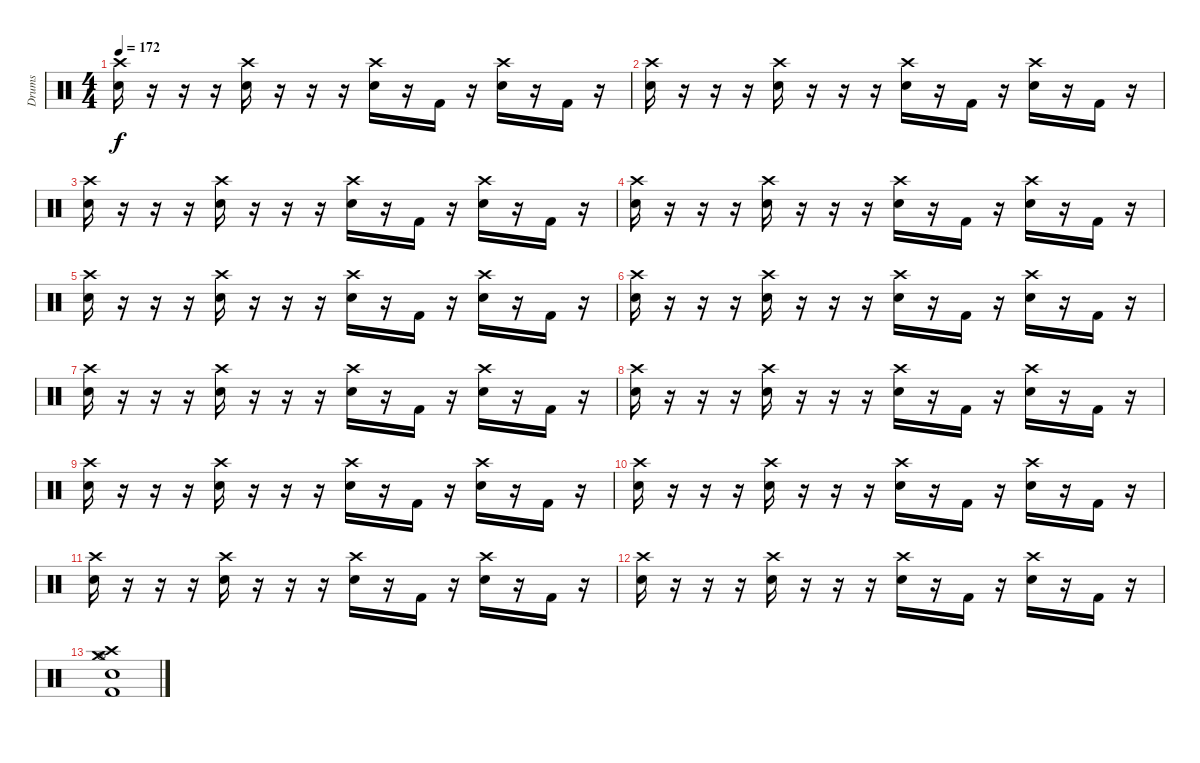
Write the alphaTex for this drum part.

\track ("Drums" "Drums") {instrument percussion}
\staff {score}
\articulation defaults
\ts (4 4)
\tempo 172
\clef neutral
\ks c
("Crash high (hit)" "Electric Snare (hit)").16{dy f} r.16 r.16 r.16 ("Crash high (hit)" "Electric Snare (hit)").16 r.16 r.16 r.16 ("Crash high (hit)" "Electric Snare (hit)").16 r.16 "Kick (hit) 2".16 r.16 ("Crash high (hit)" "Electric Snare (hit)").16 r.16 "Kick (hit) 2".16 r.16 |
("Crash high (hit)" "Electric Snare (hit)").16 r.16 r.16 r.16 ("Crash high (hit)" "Electric Snare (hit)").16 r.16 r.16 r.16 ("Crash high (hit)" "Electric Snare (hit)").16 r.16 "Kick (hit) 2".16 r.16 ("Crash high (hit)" "Electric Snare (hit)").16 r.16 "Kick (hit) 2".16 r.16 |
("Crash high (hit)" "Electric Snare (hit)").16 r.16 r.16 r.16 ("Crash high (hit)" "Electric Snare (hit)").16 r.16 r.16 r.16 ("Crash high (hit)" "Electric Snare (hit)").16 r.16 "Kick (hit) 2".16 r.16 ("Crash high (hit)" "Electric Snare (hit)").16 r.16 "Kick (hit) 2".16 r.16 |
("Crash high (hit)" "Electric Snare (hit)").16 r.16 r.16 r.16 ("Crash high (hit)" "Electric Snare (hit)").16 r.16 r.16 r.16 ("Crash high (hit)" "Electric Snare (hit)").16 r.16 "Kick (hit) 2".16 r.16 ("Crash high (hit)" "Electric Snare (hit)").16 r.16 "Kick (hit) 2".16 r.16 |
("Crash high (hit)" "Electric Snare (hit)").16 r.16 r.16 r.16 ("Crash high (hit)" "Electric Snare (hit)").16 r.16 r.16 r.16 ("Crash high (hit)" "Electric Snare (hit)").16 r.16 "Kick (hit) 2".16 r.16 ("Crash high (hit)" "Electric Snare (hit)").16 r.16 "Kick (hit) 2".16 r.16 |
("Crash high (hit)" "Electric Snare (hit)").16 r.16 r.16 r.16 ("Crash high (hit)" "Electric Snare (hit)").16 r.16 r.16 r.16 ("Crash high (hit)" "Electric Snare (hit)").16 r.16 "Kick (hit) 2".16 r.16 ("Crash high (hit)" "Electric Snare (hit)").16 r.16 "Kick (hit) 2".16 r.16 |
("Crash high (hit)" "Electric Snare (hit)").16 r.16 r.16 r.16 ("Crash high (hit)" "Electric Snare (hit)").16 r.16 r.16 r.16 ("Crash high (hit)" "Electric Snare (hit)").16 r.16 "Kick (hit) 2".16 r.16 ("Crash high (hit)" "Electric Snare (hit)").16 r.16 "Kick (hit) 2".16 r.16 |
("Crash high (hit)" "Electric Snare (hit)").16 r.16 r.16 r.16 ("Crash high (hit)" "Electric Snare (hit)").16 r.16 r.16 r.16 ("Crash high (hit)" "Electric Snare (hit)").16 r.16 "Kick (hit) 2".16 r.16 ("Crash high (hit)" "Electric Snare (hit)").16 r.16 "Kick (hit) 2".16 r.16 |
("Crash high (hit)" "Electric Snare (hit)").16 r.16 r.16 r.16 ("Crash high (hit)" "Electric Snare (hit)").16 r.16 r.16 r.16 ("Crash high (hit)" "Electric Snare (hit)").16 r.16 "Kick (hit) 2".16 r.16 ("Crash high (hit)" "Electric Snare (hit)").16 r.16 "Kick (hit) 2".16 r.16 |
("Crash high (hit)" "Electric Snare (hit)").16 r.16 r.16 r.16 ("Crash high (hit)" "Electric Snare (hit)").16 r.16 r.16 r.16 ("Crash high (hit)" "Electric Snare (hit)").16 r.16 "Kick (hit) 2".16 r.16 ("Crash high (hit)" "Electric Snare (hit)").16 r.16 "Kick (hit) 2".16 r.16 |
("Crash high (hit)" "Electric Snare (hit)").16 r.16 r.16 r.16 ("Crash high (hit)" "Electric Snare (hit)").16 r.16 r.16 r.16 ("Crash high (hit)" "Electric Snare (hit)").16 r.16 "Kick (hit) 2".16 r.16 ("Crash high (hit)" "Electric Snare (hit)").16 r.16 "Kick (hit) 2".16 r.16 |
("Crash high (hit)" "Electric Snare (hit)").16 r.16 r.16 r.16 ("Crash high (hit)" "Electric Snare (hit)").16 r.16 r.16 r.16 ("Crash high (hit)" "Electric Snare (hit)").16 r.16 "Kick (hit) 2".16 r.16 ("Crash high (hit)" "Electric Snare (hit)").16 r.16 "Kick (hit) 2".16 r.16 |
("Crash high (hit)" "Hi-Hat (open)" "Crash medium (hit)" "Electric Snare (hit)" "Kick (hit) 2").1
